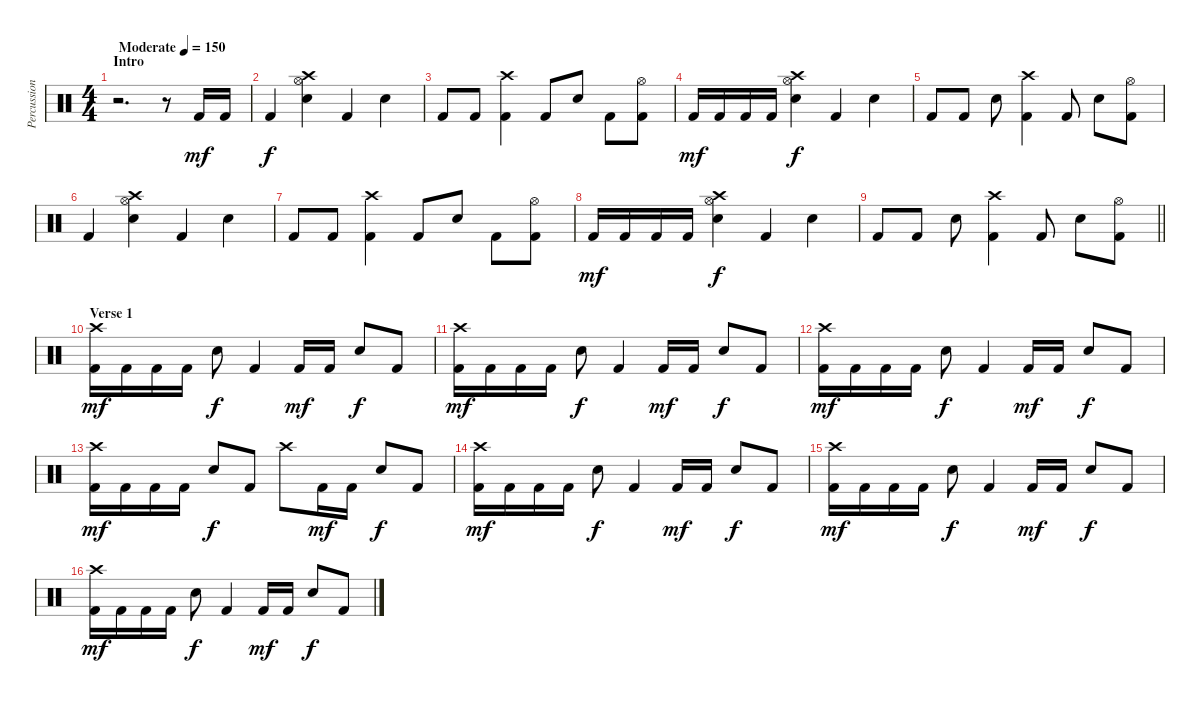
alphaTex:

\track ("Percussion" "Percussion") {instrument percussion}
\staff {score}
\articulation defaults
\ts (4 4)
\section ("" "Intro")
\tempo (150 "Moderate")
\clef neutral
\ks c
r.2{d dy mf} r.8 "Kick (hit) 2".16 "Kick (hit) 2".16 |
"Kick (hit) 2".4{dy f} ("Crash high (hit)" "Electric Snare (hit)" "Hi-Hat (open)").4 "Kick (hit) 2".4 "Electric Snare (hit)".4 |
"Kick (hit) 2".8 "Kick (hit) 2".8 ("Crash high (hit)" "Kick (hit) 2").4 "Kick (hit) 2".8 "Electric Snare (hit)".8 "Kick (hit) 2".8 ("Hi-Hat (open)" "Kick (hit) 2").8 |
"Kick (hit) 2".16{dy mf} "Kick (hit) 2".16 "Kick (hit) 2".16 "Kick (hit) 2".16 ("Crash high (hit)" "Electric Snare (hit)" "Hi-Hat (open)").4{dy f} "Kick (hit) 2".4 "Electric Snare (hit)".4 |
"Kick (hit) 2".8 "Kick (hit) 2".8 "Electric Snare (hit)".8 ("Crash high (hit)" "Kick (hit) 2").4 "Kick (hit) 2".8 "Electric Snare (hit)".8 ("Hi-Hat (open)" "Kick (hit) 2").8 |
"Kick (hit) 2".4 ("Crash high (hit)" "Electric Snare (hit)" "Hi-Hat (open)").4 "Kick (hit) 2".4 "Electric Snare (hit)".4 |
"Kick (hit) 2".8 "Kick (hit) 2".8 ("Crash high (hit)" "Kick (hit) 2").4 "Kick (hit) 2".8 "Electric Snare (hit)".8 "Kick (hit) 2".8 ("Hi-Hat (open)" "Kick (hit) 2").8 |
"Kick (hit) 2".16{dy mf} "Kick (hit) 2".16 "Kick (hit) 2".16 "Kick (hit) 2".16 ("Crash high (hit)" "Electric Snare (hit)" "Hi-Hat (open)").4{dy f} "Kick (hit) 2".4 "Electric Snare (hit)".4 |
\barLineRight lightlight "Kick (hit) 2".8 "Kick (hit) 2".8 "Electric Snare (hit)".8
("Crash high (hit)" "Kick (hit) 2").4 "Kick (hit) 2".8 "Electric Snare (hit)".8 ("Hi-Hat (open)" "Kick (hit) 2").8 |
\section ("" "Verse 1")
("Crash high (hit)" "Kick (hit) 2").16{dy mf} "Kick (hit) 2".16 "Kick (hit) 2".16 "Kick (hit) 2".16 "Electric Snare (hit)".8{dy f} "Kick (hit) 2".4 "Kick (hit) 2".16{dy mf} "Kick (hit) 2".16 "Electric Snare (hit)".8{dy f} "Kick (hit) 2".8 |
("Crash high (hit)" "Kick (hit) 2").16{dy mf} "Kick (hit) 2".16 "Kick (hit) 2".16 "Kick (hit) 2".16 "Electric Snare (hit)".8{dy f} "Kick (hit) 2".4 "Kick (hit) 2".16{dy mf} "Kick (hit) 2".16 "Electric Snare (hit)".8{dy f} "Kick (hit) 2".8 |
("Crash high (hit)" "Kick (hit) 2").16{dy mf} "Kick (hit) 2".16 "Kick (hit) 2".16 "Kick (hit) 2".16 "Electric Snare (hit)".8{dy f} "Kick (hit) 2".4 "Kick (hit) 2".16{dy mf} "Kick (hit) 2".16 "Electric Snare (hit)".8{dy f} "Kick (hit) 2".8 |
("Crash high (hit)" "Kick (hit) 2").16{dy mf} "Kick (hit) 2".16 "Kick (hit) 2".16 "Kick (hit) 2".16 "Electric Snare (hit)".8{dy f} "Kick (hit) 2".8 "Crash high (hit)".8 "Kick (hit) 2".16{dy mf} "Kick (hit) 2".16 "Electric Snare (hit)".8{dy f} "Kick (hit) 2".8 |
("Crash high (hit)" "Kick (hit) 2").16{dy mf} "Kick (hit) 2".16 "Kick (hit) 2".16 "Kick (hit) 2".16 "Electric Snare (hit)".8{dy f} "Kick (hit) 2".4 "Kick (hit) 2".16{dy mf} "Kick (hit) 2".16 "Electric Snare (hit)".8{dy f} "Kick (hit) 2".8 |
("Crash high (hit)" "Kick (hit) 2").16{dy mf} "Kick (hit) 2".16 "Kick (hit) 2".16 "Kick (hit) 2".16 "Electric Snare (hit)".8{dy f} "Kick (hit) 2".4 "Kick (hit) 2".16{dy mf} "Kick (hit) 2".16 "Electric Snare (hit)".8{dy f} "Kick (hit) 2".8 |
("Crash high (hit)" "Kick (hit) 2").16{dy mf} "Kick (hit) 2".16 "Kick (hit) 2".16 "Kick (hit) 2".16 "Electric Snare (hit)".8{dy f} "Kick (hit) 2".4 "Kick (hit) 2".16{dy mf} "Kick (hit) 2".16 "Electric Snare (hit)".8{dy f} "Kick (hit) 2".8
